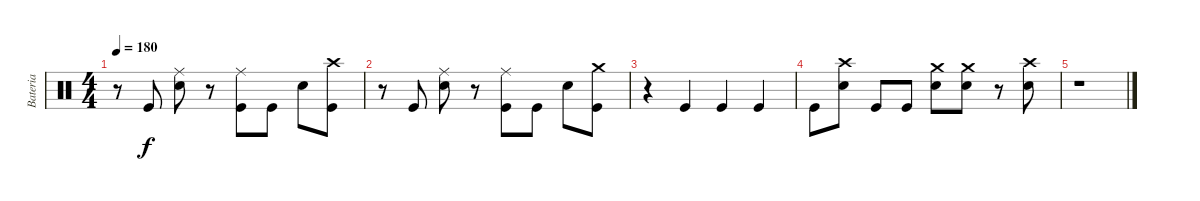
\track ("Bateria" "Bateria") {instrument percussion}
\staff {score}
\articulation defaults
\ts (4 4)
\tempo 180
\clef neutral
\ks c
r.8{dy f} "Kick (hit)".8 ("Ride (middle)" "Electric Snare (hit)").8 r.8 ("Ride (middle)" "Kick (hit)").8 "Kick (hit)".8 "Electric Snare (hit)".8 ("Kick (hit)" "Crash high (hit)").8 |
r.8 "Kick (hit)".8 ("Ride (middle)" "Electric Snare (hit)").8 r.8 ("Ride (middle)" "Kick (hit)").8 "Kick (hit)".8 "Electric Snare (hit)".8 ("Kick (hit)" "Crash medium (hit)").8 |
r.4 "Kick (hit)".4 "Kick (hit)".4 "Kick (hit)".4 |
"Kick (hit)".8 ("Electric Snare (hit)" "Crash high (hit)").8 "Kick (hit)".8 "Kick (hit)".8 ("Electric Snare (hit)" "Crash medium (hit)").8 ("Electric Snare (hit)" "Crash medium (hit)").8 r.8 ("Electric Snare (hit)" "Crash high (hit)").8 |
r.1
